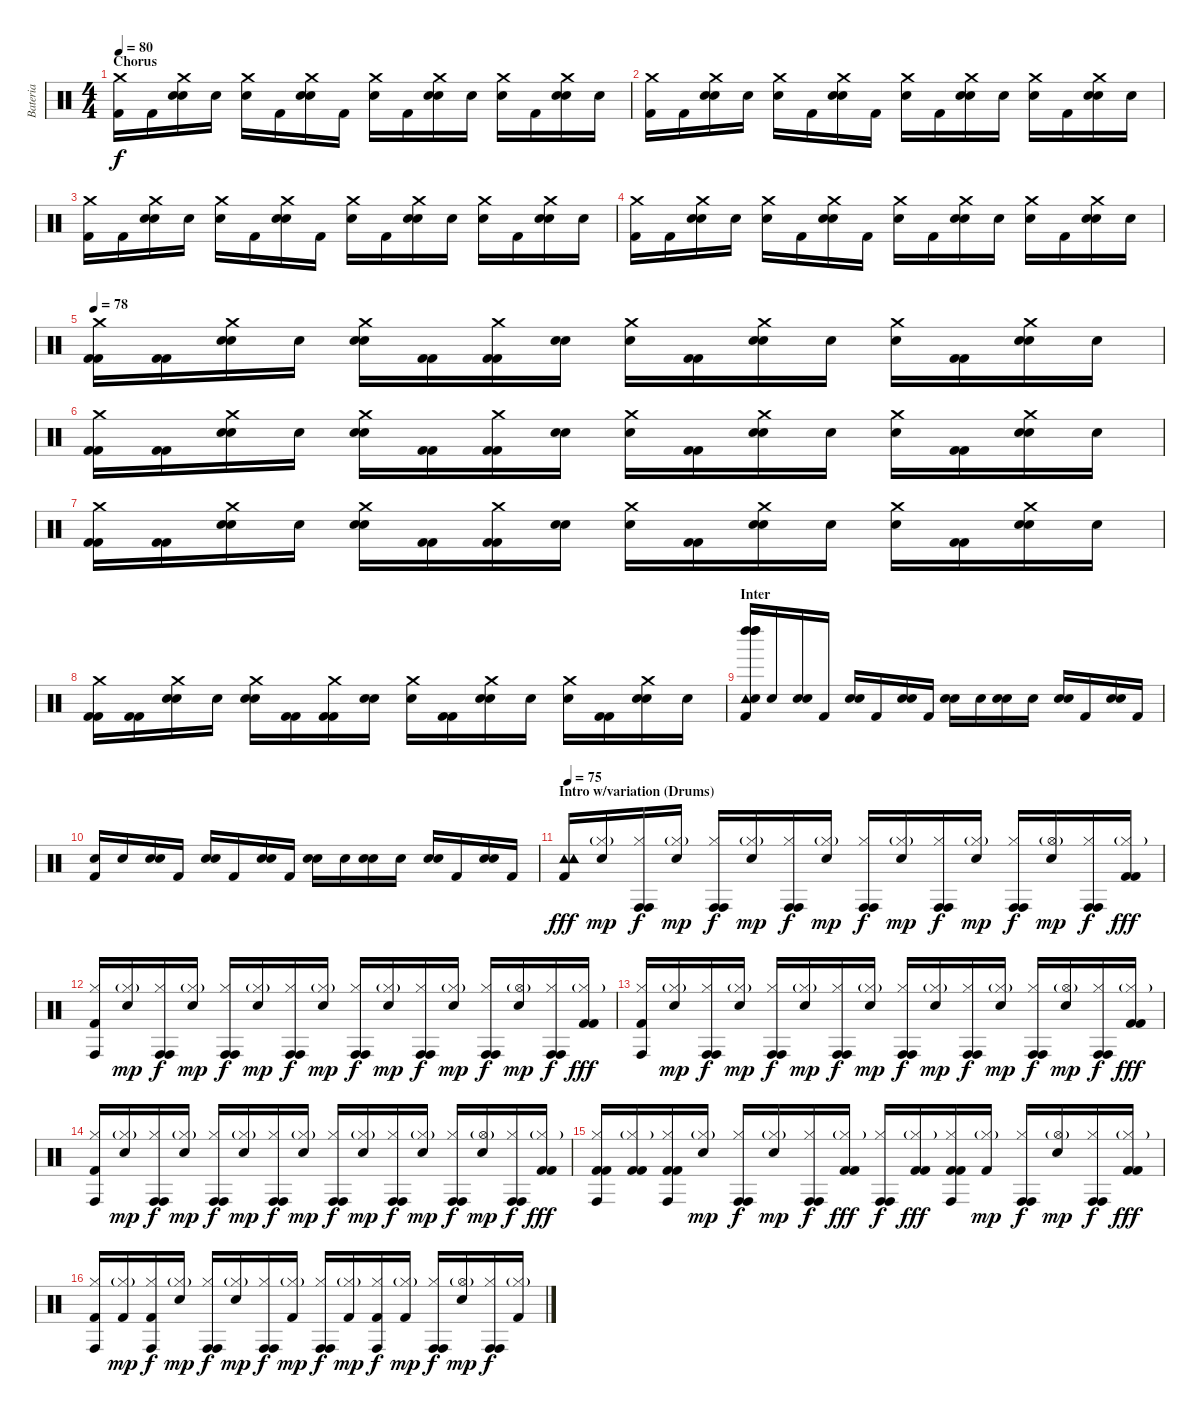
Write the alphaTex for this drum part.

\track ("Bateria" "Bateria") {instrument percussion}
\staff {score}
\articulation defaults
\ts (4 4)
\section ("" "Chorus")
\tempo 80
\clef neutral
\ks c
("Crash medium (hit)" "Kick (hit) 2").16{dy f} "Kick (hit) 2".16 ("Crash medium (hit)" "Snare (hit) 2" "Snare (hit)"{x}).16 "Snare (hit)"{x}.16 ("Crash medium (hit)" "Snare (hit)"{x}).16 "Kick (hit) 2".16 ("Crash medium (hit)" "Snare (hit) 2" "Snare (hit)"{x}).16 "Kick (hit) 2".16 ("Crash medium (hit)" "Snare (hit)"{x}).16 "Kick (hit) 2".16 ("Crash medium (hit)" "Snare (hit) 2" "Snare (hit)"{x}).16 "Snare (hit)"{x}.16 ("Crash medium (hit)" "Snare (hit)"{x}).16 "Kick (hit) 2".16 ("Crash medium (hit)" "Snare (hit) 2" "Snare (hit)"{x}).16 "Snare (hit)"{x}.16 |
("Crash medium (hit)" "Kick (hit) 2").16 "Kick (hit) 2".16 ("Crash medium (hit)" "Snare (hit) 2" "Snare (hit)"{x}).16 "Snare (hit)"{x}.16 ("Crash medium (hit)" "Snare (hit)"{x}).16 "Kick (hit) 2".16 ("Crash medium (hit)" "Snare (hit) 2" "Snare (hit)"{x}).16 "Kick (hit) 2".16 ("Crash medium (hit)" "Snare (hit)"{x}).16 "Kick (hit) 2".16 ("Crash medium (hit)" "Snare (hit) 2" "Snare (hit)"{x}).16 "Snare (hit)"{x}.16 ("Crash medium (hit)" "Snare (hit)"{x}).16 "Kick (hit) 2".16 ("Crash medium (hit)" "Snare (hit) 2" "Snare (hit)"{x}).16 "Snare (hit)"{x}.16 |
("Crash medium (hit)" "Kick (hit) 2").16 "Kick (hit) 2".16 ("Crash medium (hit)" "Snare (hit) 2" "Snare (hit)"{x}).16 "Snare (hit)"{x}.16 ("Crash medium (hit)" "Snare (hit)"{x}).16 "Kick (hit) 2".16 ("Crash medium (hit)" "Snare (hit) 2" "Snare (hit)"{x}).16 "Kick (hit) 2".16 ("Crash medium (hit)" "Snare (hit)"{x}).16 "Kick (hit) 2".16 ("Crash medium (hit)" "Snare (hit) 2" "Snare (hit)"{x}).16 "Snare (hit)"{x}.16 ("Crash medium (hit)" "Snare (hit)"{x}).16 "Kick (hit) 2".16 ("Crash medium (hit)" "Snare (hit) 2" "Snare (hit)"{x}).16 "Snare (hit)"{x}.16 |
("Crash medium (hit)" "Kick (hit) 2").16 "Kick (hit) 2".16 ("Crash medium (hit)" "Snare (hit) 2" "Snare (hit)"{x}).16 "Snare (hit)"{x}.16 ("Crash medium (hit)" "Snare (hit)"{x}).16 "Kick (hit) 2".16 ("Crash medium (hit)" "Snare (hit) 2" "Snare (hit)"{x}).16 "Kick (hit) 2".16 ("Crash medium (hit)" "Snare (hit)"{x}).16 "Kick (hit) 2".16 ("Crash medium (hit)" "Snare (hit) 2" "Snare (hit)"{x}).16 "Snare (hit)"{x}.16 ("Crash medium (hit)" "Snare (hit)"{x}).16 "Kick (hit) 2".16 ("Crash medium (hit)" "Snare (hit) 2" "Snare (hit)"{x}).16 "Snare (hit)"{x}.16 |
\tempo 78
("Crash medium (hit)" "Kick (hit) 2" "Kick (hit) 2").16 ("Kick (hit) 2" "Kick (hit) 2").16 ("Crash medium (hit)" "Snare (hit) 2" "Snare (hit)"{x}).16 "Snare (hit)"{x}.16 ("Crash medium (hit)" "Snare (hit) 2" "Snare (hit)"{x}).16 ("Kick (hit) 2" "Kick (hit) 2").16 ("Crash medium (hit)" "Kick (hit) 2" "Kick (hit) 2").16 ("Snare (hit) 2" "Snare (hit)"{x}).16 ("Crash medium (hit)" "Snare (hit)"{x}).16 ("Kick (hit) 2" "Kick (hit) 2").16 ("Crash medium (hit)" "Snare (hit) 2" "Snare (hit)"{x}).16 "Snare (hit)"{x}.16 ("Crash medium (hit)" "Snare (hit)"{x}).16 ("Kick (hit) 2" "Kick (hit) 2").16 ("Crash medium (hit)" "Snare (hit) 2" "Snare (hit)"{x}).16 "Snare (hit)"{x}.16 |
("Crash medium (hit)" "Kick (hit) 2" "Kick (hit) 2").16 ("Kick (hit) 2" "Kick (hit) 2").16 ("Crash medium (hit)" "Snare (hit) 2" "Snare (hit)"{x}).16 "Snare (hit)"{x}.16 ("Crash medium (hit)" "Snare (hit) 2" "Snare (hit)"{x}).16 ("Kick (hit) 2" "Kick (hit) 2").16 ("Crash medium (hit)" "Kick (hit) 2" "Kick (hit) 2").16 ("Snare (hit) 2" "Snare (hit)"{x}).16 ("Crash medium (hit)" "Snare (hit)"{x}).16 ("Kick (hit) 2" "Kick (hit) 2").16 ("Crash medium (hit)" "Snare (hit) 2" "Snare (hit)"{x}).16 "Snare (hit)"{x}.16 ("Crash medium (hit)" "Snare (hit)"{x}).16 ("Kick (hit) 2" "Kick (hit) 2").16 ("Crash medium (hit)" "Snare (hit) 2" "Snare (hit)"{x}).16 "Snare (hit)"{x}.16 |
("Crash medium (hit)" "Kick (hit) 2" "Kick (hit) 2").16 ("Kick (hit) 2" "Kick (hit) 2").16 ("Crash medium (hit)" "Snare (hit) 2" "Snare (hit)"{x}).16 "Snare (hit)"{x}.16 ("Crash medium (hit)" "Snare (hit) 2" "Snare (hit)"{x}).16 ("Kick (hit) 2" "Kick (hit) 2").16 ("Crash medium (hit)" "Kick (hit) 2" "Kick (hit) 2").16 ("Snare (hit) 2" "Snare (hit)"{x}).16 ("Crash medium (hit)" "Snare (hit)"{x}).16 ("Kick (hit) 2" "Kick (hit) 2").16 ("Crash medium (hit)" "Snare (hit) 2" "Snare (hit)"{x}).16 "Snare (hit)"{x}.16 ("Crash medium (hit)" "Snare (hit)"{x}).16 ("Kick (hit) 2" "Kick (hit) 2").16 ("Crash medium (hit)" "Snare (hit) 2" "Snare (hit)"{x}).16 "Snare (hit)"{x}.16 |
("Crash medium (hit)" "Kick (hit) 2" "Kick (hit) 2").16 ("Kick (hit) 2" "Kick (hit) 2").16 ("Crash medium (hit)" "Snare (hit) 2" "Snare (hit)"{x}).16 "Snare (hit)"{x}.16 ("Crash medium (hit)" "Snare (hit) 2" "Snare (hit)"{x}).16 ("Kick (hit) 2" "Kick (hit) 2").16 ("Crash medium (hit)" "Kick (hit) 2" "Kick (hit) 2").16 ("Snare (hit) 2" "Snare (hit)"{x}).16 ("Crash medium (hit)" "Snare (hit)"{x}).16 ("Kick (hit) 2" "Kick (hit) 2").16 ("Crash medium (hit)" "Snare (hit) 2" "Snare (hit)"{x}).16 "Snare (hit)"{x}.16 ("Crash medium (hit)" "Snare (hit)"{x}).16 ("Kick (hit) 2" "Kick (hit) 2").16 ("Crash medium (hit)" "Snare (hit) 2" "Snare (hit)"{x}).16 "Snare (hit)"{x}.16 |
\section ("" "Inter")
("Tambourine (hit)" "Left Maraca (hit)" "Left Maraca (hit)" "Left Maraca (hit)" "Electric Snare (hit)" "Kick (hit) 2").16 "Snare (hit)"{x}.16 ("Electric Snare (hit)" "Snare (hit)"{x}).16 "Kick (hit) 2"{x}.16 ("Electric Snare (hit)" "Snare (hit)"{x}).16 "Kick (hit) 2".16 ("Electric Snare (hit)" "Snare (hit)"{x}).16 "Kick (hit) 2".16 ("Electric Snare (hit)" "Snare (hit)"{x}).16 "Snare (hit)"{x}.16 ("Electric Snare (hit)" "Snare (hit)"{x}).16 "Snare (hit)"{x}.16 ("Electric Snare (hit)" "Snare (hit)"{x}).16 "Kick (hit) 2".16 ("Electric Snare (hit)" "Snare (hit)"{x}).16 "Kick (hit) 2".16 |
("Electric Snare (hit)" "Kick (hit) 2").16 "Snare (hit)"{x}.16 ("Electric Snare (hit)" "Snare (hit)"{x}).16 "Kick (hit) 2"{x}.16 ("Electric Snare (hit)" "Snare (hit)"{x}).16 "Kick (hit) 2".16 ("Electric Snare (hit)" "Snare (hit)"{x}).16 "Kick (hit) 2".16 ("Electric Snare (hit)" "Snare (hit)"{x}).16 "Snare (hit)"{x}.16 ("Electric Snare (hit)" "Snare (hit)"{x}).16 "Snare (hit)"{x}.16 ("Electric Snare (hit)" "Snare (hit)"{x}).16 "Kick (hit) 2".16 ("Electric Snare (hit)" "Snare (hit)"{x}).16 "Kick (hit) 2".16 |
\section ("" "Intro w/variation (Drums)")
\tempo 75
("Tambourine (hit)" "Tambourine (hit)" "Tambourine (hit)" "Kick (hit) 2").16{dy fff} ("Hi-Hat (closed)"{g} "Snare (hit)"{x}).16{dy mp} ("Hi-Hat (closed)" "Conga high (hit)" "Conga high (hit)"{x}).16{dy f} ("Hi-Hat (closed)"{g} "Snare (hit)"{x}).16{dy mp} ("Hi-Hat (closed)" "Conga high (hit)" "Conga high (hit)"{x}).16{dy f} ("Hi-Hat (closed)"{g} "Snare (hit)"{x}).16{dy mp} ("Hi-Hat (closed)" "Conga high (hit)" "Conga high (hit)"{x}).16{dy f} ("Hi-Hat (closed)"{g} "Snare (hit)"{x}).16{dy mp} ("Hi-Hat (closed)" "Conga high (hit)" "Conga high (hit)"{x}).16{dy f} ("Hi-Hat (closed)"{g} "Snare (hit)"{x}).16{dy mp} ("Hi-Hat (closed)" "Conga high (hit)" "Conga high (hit)"{x}).16{dy f} ("Hi-Hat (closed)"{g} "Snare (hit)"{x}).16{dy mp} ("Hi-Hat (closed)" "Conga high (hit)" "Conga high (hit)"{x}).16{dy f} ("Hi-Hat (open)"{g} "Snare (hit)"{x}).16{dy mp} ("Hi-Hat (closed)" "Conga high (hit)" "Conga high (hit)"{x}).16{dy f} ("Hi-Hat (closed)"{g} "Kick (hit) 2" "Kick (hit) 2").16{dy fff} |
("Hi-Hat (closed)" "Conga high (hit)" "Kick (hit) 2").16 ("Hi-Hat (closed)"{g} "Snare (hit)"{x}).16{dy mp} ("Hi-Hat (closed)" "Conga high (hit)" "Conga high (hit)"{x}).16{dy f} ("Hi-Hat (closed)"{g} "Snare (hit)"{x}).16{dy mp} ("Hi-Hat (closed)" "Conga high (hit)" "Conga high (hit)"{x}).16{dy f} ("Hi-Hat (closed)"{g} "Snare (hit)"{x}).16{dy mp} ("Hi-Hat (closed)" "Conga high (hit)" "Conga high (hit)"{x}).16{dy f} ("Hi-Hat (closed)"{g} "Snare (hit)"{x}).16{dy mp} ("Hi-Hat (closed)" "Conga high (hit)" "Conga high (hit)"{x}).16{dy f} ("Hi-Hat (closed)"{g} "Snare (hit)"{x}).16{dy mp} ("Hi-Hat (closed)" "Conga high (hit)" "Conga high (hit)"{x}).16{dy f} ("Hi-Hat (closed)"{g} "Snare (hit)"{x}).16{dy mp} ("Hi-Hat (closed)" "Conga high (hit)" "Conga high (hit)"{x}).16{dy f} ("Hi-Hat (open)"{g} "Snare (hit)"{x}).16{dy mp} ("Hi-Hat (closed)" "Conga high (hit)" "Conga high (hit)"{x}).16{dy f} ("Hi-Hat (closed)"{g} "Kick (hit) 2" "Kick (hit) 2").16{dy fff} |
("Hi-Hat (closed)" "Conga high (hit)" "Kick (hit) 2").16 ("Hi-Hat (closed)"{g} "Snare (hit)"{x}).16{dy mp} ("Hi-Hat (closed)" "Conga high (hit)" "Conga high (hit)"{x}).16{dy f} ("Hi-Hat (closed)"{g} "Snare (hit)"{x}).16{dy mp} ("Hi-Hat (closed)" "Conga high (hit)" "Conga high (hit)"{x}).16{dy f} ("Hi-Hat (closed)"{g} "Snare (hit)"{x}).16{dy mp} ("Hi-Hat (closed)" "Conga high (hit)" "Conga high (hit)"{x}).16{dy f} ("Hi-Hat (closed)"{g} "Snare (hit)"{x}).16{dy mp} ("Hi-Hat (closed)" "Conga high (hit)" "Conga high (hit)"{x}).16{dy f} ("Hi-Hat (closed)"{g} "Snare (hit)"{x}).16{dy mp} ("Hi-Hat (closed)" "Conga high (hit)" "Conga high (hit)"{x}).16{dy f} ("Hi-Hat (closed)"{g} "Snare (hit)"{x}).16{dy mp} ("Hi-Hat (closed)" "Conga high (hit)" "Conga high (hit)"{x}).16{dy f} ("Hi-Hat (open)"{g} "Snare (hit)"{x}).16{dy mp} ("Hi-Hat (closed)" "Conga high (hit)" "Conga high (hit)"{x}).16{dy f} ("Hi-Hat (closed)"{g} "Kick (hit) 2" "Kick (hit) 2").16{dy fff} |
("Hi-Hat (closed)" "Conga high (hit)" "Kick (hit) 2").16 ("Hi-Hat (closed)"{g} "Snare (hit)"{x}).16{dy mp} ("Hi-Hat (closed)" "Conga high (hit)" "Conga high (hit)"{x}).16{dy f} ("Hi-Hat (closed)"{g} "Snare (hit)"{x}).16{dy mp} ("Hi-Hat (closed)" "Conga high (hit)" "Conga high (hit)"{x}).16{dy f} ("Hi-Hat (closed)"{g} "Snare (hit)"{x}).16{dy mp} ("Hi-Hat (closed)" "Conga high (hit)" "Conga high (hit)"{x}).16{dy f} ("Hi-Hat (closed)"{g} "Snare (hit)"{x}).16{dy mp} ("Hi-Hat (closed)" "Conga high (hit)" "Conga high (hit)"{x}).16{dy f} ("Hi-Hat (closed)"{g} "Snare (hit)"{x}).16{dy mp} ("Hi-Hat (closed)" "Conga high (hit)" "Conga high (hit)"{x}).16{dy f} ("Hi-Hat (closed)"{g} "Snare (hit)"{x}).16{dy mp} ("Hi-Hat (closed)" "Conga high (hit)" "Conga high (hit)"{x}).16{dy f} ("Hi-Hat (open)"{g} "Snare (hit)"{x}).16{dy mp} ("Hi-Hat (closed)" "Conga high (hit)" "Conga high (hit)"{x}).16{dy f} ("Hi-Hat (closed)"{g} "Kick (hit) 2" "Kick (hit) 2").16{dy fff} |
("Hi-Hat (closed)" "Kick (hit) 2" "Conga high (hit)" "Kick (hit) 2").16 ("Hi-Hat (closed)"{g} "Kick (hit) 2" "Kick (hit) 2").16 ("Hi-Hat (closed)" "Kick (hit) 2" "Conga high (hit)" "Kick (hit) 2").16 ("Hi-Hat (closed)"{g} "Snare (hit)"{x}).16{dy mp} ("Hi-Hat (closed)" "Conga high (hit)" "Conga high (hit)"{x}).16{dy f} ("Hi-Hat (closed)"{g} "Snare (hit)"{x}).16{dy mp} ("Hi-Hat (closed)" "Conga high (hit)" "Conga high (hit)"{x}).16{dy f} ("Hi-Hat (closed)"{g} "Kick (hit) 2" "Kick (hit) 2").16{dy fff} ("Hi-Hat (closed)" "Conga high (hit)" "Conga high (hit)"{x}).16{dy f} ("Hi-Hat (closed)"{g} "Kick (hit) 2" "Kick (hit) 2").16{dy fff} ("Hi-Hat (closed)" "Kick (hit) 2" "Conga high (hit)" "Kick (hit) 2").16 ("Hi-Hat (closed)"{g} "Kick (hit) 2"{x}).16{dy mp} ("Hi-Hat (closed)" "Conga high (hit)" "Conga high (hit)"{x}).16{dy f} ("Hi-Hat (open)"{g} "Snare (hit)"{x}).16{dy mp} ("Hi-Hat (closed)" "Conga high (hit)" "Conga high (hit)"{x}).16{dy f} ("Hi-Hat (closed)"{g} "Kick (hit) 2" "Kick (hit) 2").16{dy fff} |
("Hi-Hat (closed)" "Conga high (hit)" "Kick (hit) 2").16 ("Hi-Hat (closed)"{g} "Kick (hit) 2"{x}).16{dy mp} ("Hi-Hat (closed)" "Conga high (hit)" "Kick (hit) 2"{x}).16{dy f} ("Hi-Hat (closed)"{g} "Snare (hit)"{x}).16{dy mp} ("Hi-Hat (closed)" "Conga high (hit)" "Conga high (hit)"{x}).16{dy f} ("Hi-Hat (closed)"{g} "Snare (hit)"{x}).16{dy mp} ("Hi-Hat (closed)" "Conga high (hit)" "Conga high (hit)"{x}).16{dy f} ("Hi-Hat (closed)"{g} "Kick (hit) 2"{x}).16{dy mp} ("Hi-Hat (closed)" "Conga high (hit)" "Conga high (hit)"{x}).16{dy f} ("Hi-Hat (closed)"{g} "Kick (hit) 2"{x}).16{dy mp} ("Hi-Hat (closed)" "Conga high (hit)" "Kick (hit) 2"{x}).16{dy f} ("Hi-Hat (closed)"{g} "Kick (hit) 2"{x}).16{dy mp} ("Hi-Hat (closed)" "Conga high (hit)" "Conga high (hit)"{x}).16{dy f} ("Hi-Hat (open)"{g} "Snare (hit)"{x}).16{dy mp} ("Hi-Hat (closed)" "Conga high (hit)" "Conga high (hit)"{x}).16{dy f} ("Hi-Hat (closed)"{g} "Kick (hit) 2"{x}).16
